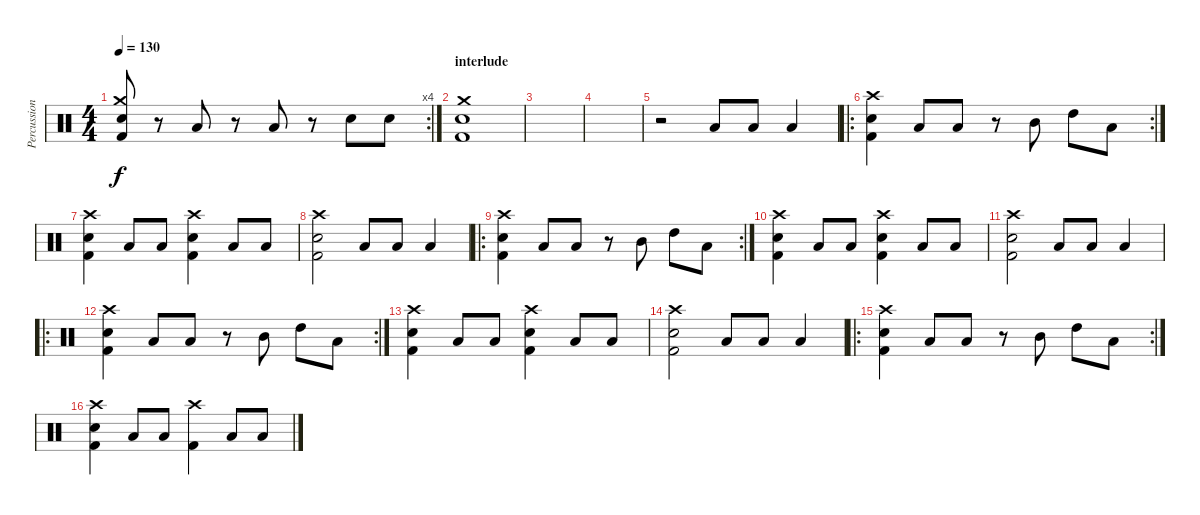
\track ("Percussions" "Percussion") {instrument percussion}
\staff {score}
\articulation defaults
\rc 4
\ts (4 4)
\tempo 130
\clef neutral
\ks c
("Kick (hit) 2" "Crash medium (hit)" "Electric Snare (hit)").8{dy f} r.8 "Low Tom (hit)".8 r.8 "Low Tom (hit)".8 r.8 "Electric Snare (hit)".8 "Electric Snare (hit)".8 |
\section ("" "interlude")
("Kick (hit) 2" "Electric Snare (hit)" "Crash medium (hit)").1 |
|
|
r.2 "Low Tom (hit)".8 "Low Tom (hit)".8 "Low Tom (hit)".4 |
\ro
\rc 2
("Electric Snare (hit)" "Kick (hit) 2" "Crash high (hit)").4{volume 13} "Low Tom (hit)".8 "Low Tom (hit)".8 r.8 "Mid Tom (hit)".8 "High Tom (hit)".8 "Low Tom (hit)".8 |
("Electric Snare (hit)" "Kick (hit) 2" "Crash high (hit)").4 "Low Tom (hit)".8 "Low Tom (hit)".8 ("Electric Snare (hit)" "Kick (hit) 2" "Crash high (hit)").4 "Low Tom (hit)".8 "Low Tom (hit)".8 |
("Electric Snare (hit)" "Kick (hit) 2" "Crash high (hit)").2 "Low Tom (hit)".8 "Low Tom (hit)".8 "Low Tom (hit)".4 |
\ro
\rc 2
("Electric Snare (hit)" "Kick (hit) 2" "Crash high (hit)").4{volume 13} "Low Tom (hit)".8 "Low Tom (hit)".8 r.8 "Mid Tom (hit)".8 "High Tom (hit)".8 "Low Tom (hit)".8 |
("Electric Snare (hit)" "Kick (hit) 2" "Crash high (hit)").4 "Low Tom (hit)".8 "Low Tom (hit)".8 ("Electric Snare (hit)" "Kick (hit) 2" "Crash high (hit)").4 "Low Tom (hit)".8 "Low Tom (hit)".8 |
("Electric Snare (hit)" "Kick (hit) 2" "Crash high (hit)").2 "Low Tom (hit)".8 "Low Tom (hit)".8 "Low Tom (hit)".4 |
\ro
\rc 2
("Electric Snare (hit)" "Kick (hit) 2" "Crash high (hit)").4 "Low Tom (hit)".8 "Low Tom (hit)".8 r.8 "Mid Tom (hit)".8 "High Tom (hit)".8 "Low Tom (hit)".8 |
("Electric Snare (hit)" "Kick (hit) 2" "Crash high (hit)").4 "Low Tom (hit)".8 "Low Tom (hit)".8 ("Electric Snare (hit)" "Kick (hit) 2" "Crash high (hit)").4 "Low Tom (hit)".8 "Low Tom (hit)".8 |
("Electric Snare (hit)" "Kick (hit) 2" "Crash high (hit)").2 "Low Tom (hit)".8 "Low Tom (hit)".8 "Low Tom (hit)".4 |
\ro
\rc 2
("Electric Snare (hit)" "Kick (hit) 2" "Crash high (hit)").4 "Low Tom (hit)".8 "Low Tom (hit)".8 r.8 "Mid Tom (hit)".8 "High Tom (hit)".8 "Low Tom (hit)".8 |
("Electric Snare (hit)" "Kick (hit) 2" "Crash high (hit)").4 "Low Tom (hit)".8 "Low Tom (hit)".8 ("Kick (hit) 2" "Crash high (hit)").4 "Low Tom (hit)".8 "Low Tom (hit)".8
